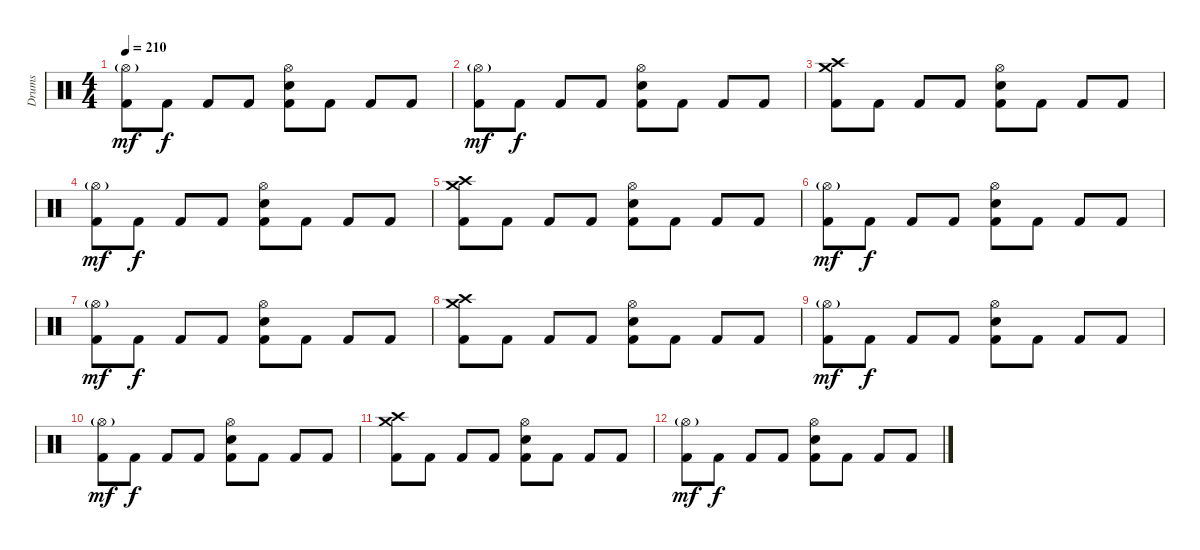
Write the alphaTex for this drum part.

\track ("Drums" "Drums") {instrument percussion}
\staff {score}
\articulation defaults
\ts (4 4)
\tempo 210
\clef neutral
\ks c
("Hi-Hat (open)"{g} "Kick (hit) 2").8{dy mf} "Kick (hit) 2".8{dy f} "Kick (hit) 2".8 "Kick (hit) 2".8 ("Hi-Hat (open)" "Electric Snare (hit)" "Kick (hit) 2").8 "Kick (hit) 2".8 "Kick (hit) 2".8 "Kick (hit) 2".8 |
("Hi-Hat (open)"{g} "Kick (hit) 2").8{dy mf} "Kick (hit) 2".8{dy f} "Kick (hit) 2".8 "Kick (hit) 2".8 ("Hi-Hat (open)" "Electric Snare (hit)" "Kick (hit) 2").8 "Kick (hit) 2".8 "Kick (hit) 2".8 "Kick (hit) 2".8 |
("Crash high (hit)" "Crash medium (hit)" "Kick (hit) 2").8 "Kick (hit) 2".8 "Kick (hit) 2".8 "Kick (hit) 2".8 ("Hi-Hat (open)" "Electric Snare (hit)" "Kick (hit) 2").8 "Kick (hit) 2".8 "Kick (hit) 2".8 "Kick (hit) 2".8 |
("Hi-Hat (open)"{g} "Kick (hit) 2").8{dy mf} "Kick (hit) 2".8{dy f} "Kick (hit) 2".8 "Kick (hit) 2".8 ("Hi-Hat (open)" "Electric Snare (hit)" "Kick (hit) 2").8 "Kick (hit) 2".8 "Kick (hit) 2".8 "Kick (hit) 2".8 |
("Crash high (hit)" "Crash medium (hit)" "Kick (hit) 2").8 "Kick (hit) 2".8 "Kick (hit) 2".8 "Kick (hit) 2".8 ("Hi-Hat (open)" "Electric Snare (hit)" "Kick (hit) 2").8 "Kick (hit) 2".8 "Kick (hit) 2".8 "Kick (hit) 2".8 |
("Hi-Hat (open)"{g} "Kick (hit) 2").8{dy mf} "Kick (hit) 2".8{dy f} "Kick (hit) 2".8 "Kick (hit) 2".8 ("Hi-Hat (open)" "Electric Snare (hit)" "Kick (hit) 2").8 "Kick (hit) 2".8 "Kick (hit) 2".8 "Kick (hit) 2".8 |
("Hi-Hat (open)"{g} "Kick (hit) 2").8{dy mf} "Kick (hit) 2".8{dy f} "Kick (hit) 2".8 "Kick (hit) 2".8 ("Hi-Hat (open)" "Electric Snare (hit)" "Kick (hit) 2").8 "Kick (hit) 2".8 "Kick (hit) 2".8 "Kick (hit) 2".8 |
("Crash high (hit)" "Crash medium (hit)" "Kick (hit) 2").8 "Kick (hit) 2".8 "Kick (hit) 2".8 "Kick (hit) 2".8 ("Hi-Hat (open)" "Electric Snare (hit)" "Kick (hit) 2").8 "Kick (hit) 2".8 "Kick (hit) 2".8 "Kick (hit) 2".8 |
("Hi-Hat (open)"{g} "Kick (hit) 2").8{dy mf} "Kick (hit) 2".8{dy f} "Kick (hit) 2".8 "Kick (hit) 2".8 ("Hi-Hat (open)" "Electric Snare (hit)" "Kick (hit) 2").8 "Kick (hit) 2".8 "Kick (hit) 2".8 "Kick (hit) 2".8 |
("Hi-Hat (open)"{g} "Kick (hit) 2").8{dy mf} "Kick (hit) 2".8{dy f} "Kick (hit) 2".8 "Kick (hit) 2".8 ("Hi-Hat (open)" "Electric Snare (hit)" "Kick (hit) 2").8 "Kick (hit) 2".8 "Kick (hit) 2".8 "Kick (hit) 2".8 |
("Crash high (hit)" "Crash medium (hit)" "Kick (hit) 2").8 "Kick (hit) 2".8 "Kick (hit) 2".8 "Kick (hit) 2".8 ("Hi-Hat (open)" "Electric Snare (hit)" "Kick (hit) 2").8 "Kick (hit) 2".8 "Kick (hit) 2".8 "Kick (hit) 2".8 |
("Hi-Hat (open)"{g} "Kick (hit) 2").8{dy mf} "Kick (hit) 2".8{dy f} "Kick (hit) 2".8 "Kick (hit) 2".8 ("Hi-Hat (open)" "Electric Snare (hit)" "Kick (hit) 2").8 "Kick (hit) 2".8 "Kick (hit) 2".8 "Kick (hit) 2".8
